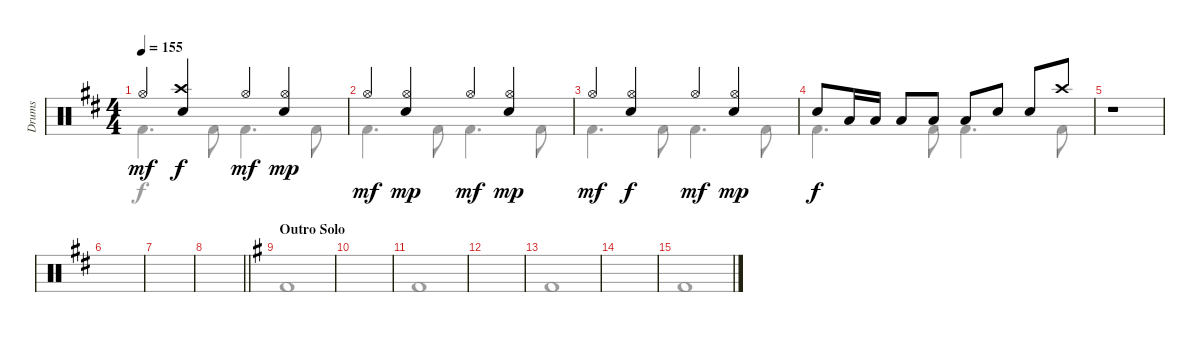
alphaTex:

\track ("Drums" "Drums") {instrument percussion}
\staff {score}
\articulation defaults
\voice
\ts (4 4)
\tempo 155
\clef neutral
\ks d "Hi-Hat (open)".4{dy mf}
("Crash high (hit)" "Electric Snare (hit)").4{dy f} "Hi-Hat (open)".4{dy mf} ("Hi-Hat (open)" "Electric Snare (hit)").4{dy mp} |
"Hi-Hat (open)".4{dy mf} ("Hi-Hat (open)" "Electric Snare (hit)").4{dy mp} "Hi-Hat (open)".4{dy mf} ("Hi-Hat (open)" "Electric Snare (hit)").4{dy mp} |
"Hi-Hat (open)".4{dy mf} ("Hi-Hat (open)" "Electric Snare (hit)").4{dy f} "Hi-Hat (open)".4{dy mf} ("Hi-Hat (open)" "Electric Snare (hit)").4{dy mp} |
"Electric Snare (hit)".8{dy f} "Low Tom (hit)".16 "Low Tom (hit)".16 "Low Tom (hit)".8 "Low Tom (hit)".8 "Low Tom (hit)".8 "Electric Snare (hit)".8 "Electric Snare (hit)".8 "Crash high (hit)".8 |
r.1 |
|
|
\barLineRight lightlight
|
\section ("" "Outro Solo")
\ks g
|
|
|
|
|
|
|
\voice
\clef neutral
\ottava regular
\simile none
\ks d "Kick (hit) 2".4{d dy f} "Kick (hit) 2".8 "Kick (hit) 2".4{d} "Kick (hit) 2".8
|
"Kick (hit) 2".4{d} "Kick (hit) 2".8 "Kick (hit) 2".4{d} "Kick (hit) 2".8 |
"Kick (hit) 2".4{d} "Kick (hit) 2".8 "Kick (hit) 2".4{d} "Kick (hit) 2".8 |
"Kick (hit) 2".4{d} "Kick (hit) 2".8 "Kick (hit) 2".4{d} "Kick (hit) 2".8 |
|
|
|
\barLineRight lightlight
|
\ks g "Kick (hit) 2".1
|
|
"Kick (hit) 2".1 |
|
"Kick (hit) 2".1 |
|
"Kick (hit) 2".1 |
